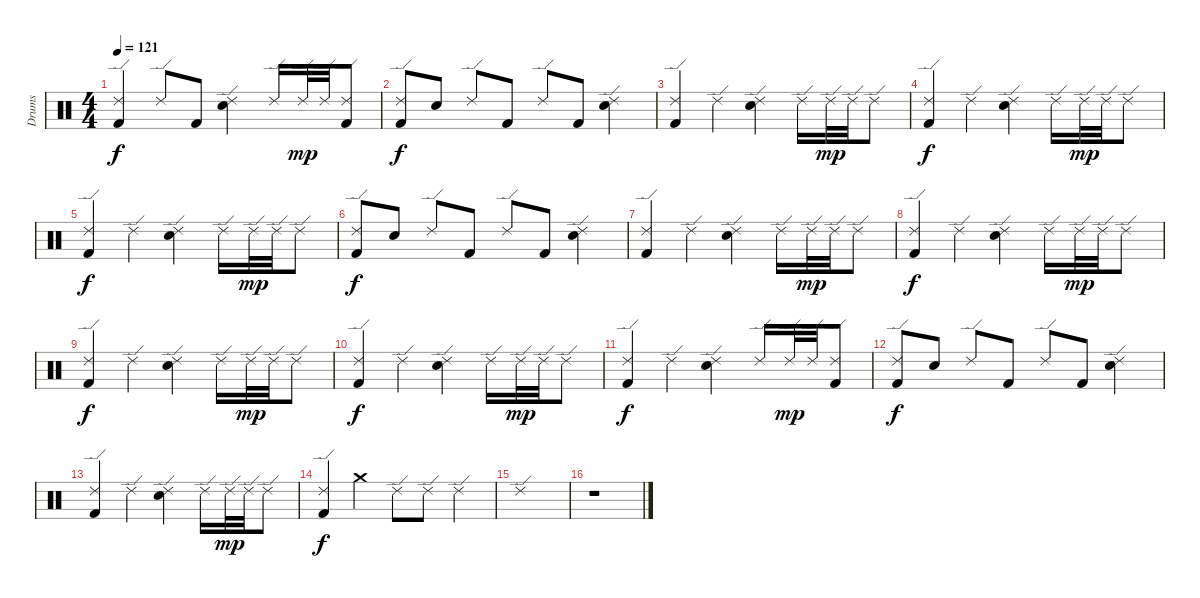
\track ("Drums" "Drums") {instrument percussion}
\staff {score}
\articulation defaults
\ts (4 4)
\tempo 121
\clef neutral
\ks c
("Ride (edge) 2" "Kick (hit) 2").4{dy f} "Ride (edge) 2".8 "Kick (hit) 2".8 ("Ride (edge) 2" "Electric Snare (hit)").4 "Ride (edge) 2".16 "Ride (edge) 2".32{dy mp} "Ride (edge) 2".32 ("Ride (edge) 2" "Kick (hit) 2").8 |
("Ride (edge) 2" "Kick (hit) 2").8{dy f} "Electric Snare (hit)".8 "Ride (edge) 2".8 "Kick (hit) 2".8 "Ride (edge) 2".8 "Kick (hit) 2".8 ("Ride (edge) 2" "Electric Snare (hit)").4 |
("Ride (edge) 2" "Kick (hit) 2").4 "Ride (edge) 2".4 ("Ride (edge) 2" "Electric Snare (hit)").4 "Ride (edge) 2".16 "Ride (edge) 2".32{dy mp} "Ride (edge) 2".32 "Ride (edge) 2".8 |
("Ride (edge) 2" "Kick (hit) 2").4{dy f} "Ride (edge) 2".4 ("Ride (edge) 2" "Electric Snare (hit)").4 "Ride (edge) 2".16 "Ride (edge) 2".32{dy mp} "Ride (edge) 2".32 "Ride (edge) 2".8 |
("Ride (edge) 2" "Kick (hit) 2").4{dy f} "Ride (edge) 2".4 ("Ride (edge) 2" "Electric Snare (hit)").4 "Ride (edge) 2".16 "Ride (edge) 2".32{dy mp} "Ride (edge) 2".32 "Ride (edge) 2".8 |
("Ride (edge) 2" "Kick (hit) 2").8{dy f} "Electric Snare (hit)".8 "Ride (edge) 2".8 "Kick (hit) 2".8 "Ride (edge) 2".8 "Kick (hit) 2".8 ("Ride (edge) 2" "Electric Snare (hit)").4 |
("Ride (edge) 2" "Kick (hit) 2").4 "Ride (edge) 2".4 ("Ride (edge) 2" "Electric Snare (hit)").4 "Ride (edge) 2".16 "Ride (edge) 2".32{dy mp} "Ride (edge) 2".32 "Ride (edge) 2".8 |
("Ride (edge) 2" "Kick (hit) 2").4{dy f} "Ride (edge) 2".4 ("Ride (edge) 2" "Electric Snare (hit)").4 "Ride (edge) 2".16 "Ride (edge) 2".32{dy mp} "Ride (edge) 2".32 "Ride (edge) 2".8 |
("Ride (edge) 2" "Kick (hit) 2").4{dy f} "Ride (edge) 2".4 ("Ride (edge) 2" "Electric Snare (hit)").4 "Ride (edge) 2".16 "Ride (edge) 2".32{dy mp} "Ride (edge) 2".32 "Ride (edge) 2".8 |
("Ride (edge) 2" "Kick (hit) 2").4{dy f} "Ride (edge) 2".4 ("Ride (edge) 2" "Electric Snare (hit)").4 "Ride (edge) 2".16 "Ride (edge) 2".32{dy mp} "Ride (edge) 2".32 "Ride (edge) 2".8 |
("Ride (edge) 2" "Kick (hit) 2").4{dy f} "Ride (edge) 2".4 ("Ride (edge) 2" "Electric Snare (hit)").4 "Ride (edge) 2".16 "Ride (edge) 2".32{dy mp} "Ride (edge) 2".32 ("Ride (edge) 2" "Kick (hit) 2").8 |
("Ride (edge) 2" "Kick (hit) 2").8{dy f} "Electric Snare (hit)".8 "Ride (edge) 2".8 "Kick (hit) 2".8 "Ride (edge) 2".8 "Kick (hit) 2".8 ("Ride (edge) 2" "Electric Snare (hit)").4 |
("Ride (edge) 2" "Kick (hit) 2").4 "Ride (edge) 2".4 ("Ride (edge) 2" "Electric Snare (hit)").4 "Ride (edge) 2".16 "Ride (edge) 2".32{dy mp} "Ride (edge) 2".32 "Ride (edge) 2".8 |
("Ride (edge) 2" "Kick (hit) 2").4{dy f} "Crash medium (hit)".4 "Ride (edge) 2".8 "Ride (edge) 2".8 "Ride (edge) 2".4 |
"Ride (edge) 2".1 |
r.1
